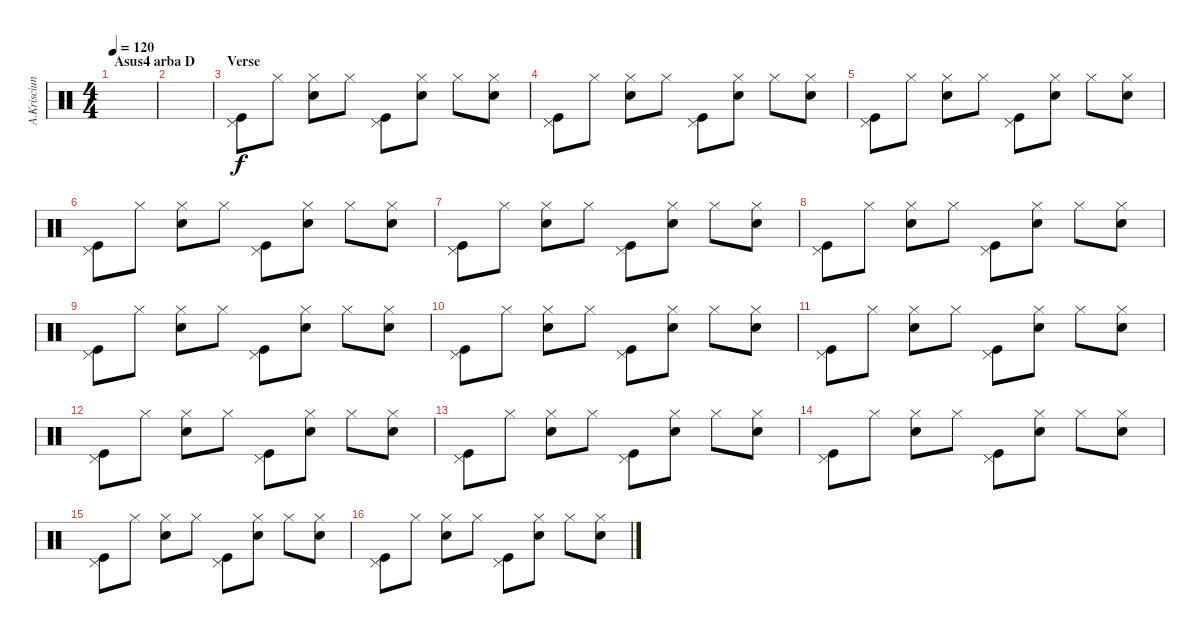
\track ("A.Krisciunas" "A.Krisciun") {instrument percussion}
\staff {score}
\articulation defaults
\ts (4 4)
\section ("" "Asus4 arba D")
\tempo 120
\clef neutral
\ks c
|
|
\section ("" "Verse")
("Pedal Hi-Hat (hit)" "Kick (hit)").8 "Hi-Hat (closed)".8 ("Hi-Hat (closed)" "Electric Snare (hit)").8 "Hi-Hat (closed)".8 ("Pedal Hi-Hat (hit)" "Kick (hit)").8 ("Hi-Hat (closed)" "Electric Snare (hit)").8 "Hi-Hat (closed)".8 ("Hi-Hat (closed)" "Electric Snare (hit)").8 |
("Pedal Hi-Hat (hit)" "Kick (hit)").8 "Hi-Hat (closed)".8 ("Hi-Hat (closed)" "Electric Snare (hit)").8 "Hi-Hat (closed)".8 ("Pedal Hi-Hat (hit)" "Kick (hit)").8 ("Hi-Hat (closed)" "Electric Snare (hit)").8 "Hi-Hat (closed)".8 ("Hi-Hat (closed)" "Electric Snare (hit)").8 |
("Pedal Hi-Hat (hit)" "Kick (hit)").8 "Hi-Hat (closed)".8 ("Hi-Hat (closed)" "Electric Snare (hit)").8 "Hi-Hat (closed)".8 ("Pedal Hi-Hat (hit)" "Kick (hit)").8 ("Hi-Hat (closed)" "Electric Snare (hit)").8 "Hi-Hat (closed)".8 ("Hi-Hat (closed)" "Electric Snare (hit)").8 |
("Pedal Hi-Hat (hit)" "Kick (hit)").8 "Hi-Hat (closed)".8 ("Hi-Hat (closed)" "Electric Snare (hit)").8 "Hi-Hat (closed)".8 ("Pedal Hi-Hat (hit)" "Kick (hit)").8 ("Hi-Hat (closed)" "Electric Snare (hit)").8 "Hi-Hat (closed)".8 ("Hi-Hat (closed)" "Electric Snare (hit)").8 |
("Pedal Hi-Hat (hit)" "Kick (hit)").8 "Hi-Hat (closed)".8 ("Hi-Hat (closed)" "Electric Snare (hit)").8 "Hi-Hat (closed)".8 ("Pedal Hi-Hat (hit)" "Kick (hit)").8 ("Hi-Hat (closed)" "Electric Snare (hit)").8 "Hi-Hat (closed)".8 ("Hi-Hat (closed)" "Electric Snare (hit)").8 |
("Pedal Hi-Hat (hit)" "Kick (hit)").8 "Hi-Hat (closed)".8 ("Hi-Hat (closed)" "Electric Snare (hit)").8 "Hi-Hat (closed)".8 ("Pedal Hi-Hat (hit)" "Kick (hit)").8 ("Hi-Hat (closed)" "Electric Snare (hit)").8 "Hi-Hat (closed)".8 ("Hi-Hat (closed)" "Electric Snare (hit)").8 |
("Pedal Hi-Hat (hit)" "Kick (hit)").8 "Hi-Hat (closed)".8 ("Hi-Hat (closed)" "Electric Snare (hit)").8 "Hi-Hat (closed)".8 ("Pedal Hi-Hat (hit)" "Kick (hit)").8 ("Hi-Hat (closed)" "Electric Snare (hit)").8 "Hi-Hat (closed)".8 ("Hi-Hat (closed)" "Electric Snare (hit)").8 |
("Pedal Hi-Hat (hit)" "Kick (hit)").8 "Hi-Hat (closed)".8 ("Hi-Hat (closed)" "Electric Snare (hit)").8 "Hi-Hat (closed)".8 ("Pedal Hi-Hat (hit)" "Kick (hit)").8 ("Hi-Hat (closed)" "Electric Snare (hit)").8 "Hi-Hat (closed)".8 ("Hi-Hat (closed)" "Electric Snare (hit)").8 |
("Pedal Hi-Hat (hit)" "Kick (hit)").8 "Hi-Hat (closed)".8 ("Hi-Hat (closed)" "Electric Snare (hit)").8 "Hi-Hat (closed)".8 ("Pedal Hi-Hat (hit)" "Kick (hit)").8 ("Hi-Hat (closed)" "Electric Snare (hit)").8 "Hi-Hat (closed)".8 ("Hi-Hat (closed)" "Electric Snare (hit)").8 |
("Pedal Hi-Hat (hit)" "Kick (hit)").8 "Hi-Hat (closed)".8 ("Hi-Hat (closed)" "Electric Snare (hit)").8 "Hi-Hat (closed)".8 ("Pedal Hi-Hat (hit)" "Kick (hit)").8 ("Hi-Hat (closed)" "Electric Snare (hit)").8 "Hi-Hat (closed)".8 ("Hi-Hat (closed)" "Electric Snare (hit)").8 |
("Pedal Hi-Hat (hit)" "Kick (hit)").8 "Hi-Hat (closed)".8 ("Hi-Hat (closed)" "Electric Snare (hit)").8 "Hi-Hat (closed)".8 ("Pedal Hi-Hat (hit)" "Kick (hit)").8 ("Hi-Hat (closed)" "Electric Snare (hit)").8 "Hi-Hat (closed)".8 ("Hi-Hat (closed)" "Electric Snare (hit)").8 |
("Pedal Hi-Hat (hit)" "Kick (hit)").8 "Hi-Hat (closed)".8 ("Hi-Hat (closed)" "Electric Snare (hit)").8 "Hi-Hat (closed)".8 ("Pedal Hi-Hat (hit)" "Kick (hit)").8 ("Hi-Hat (closed)" "Electric Snare (hit)").8 "Hi-Hat (closed)".8 ("Hi-Hat (closed)" "Electric Snare (hit)").8 |
("Pedal Hi-Hat (hit)" "Kick (hit)").8 "Hi-Hat (closed)".8 ("Hi-Hat (closed)" "Electric Snare (hit)").8 "Hi-Hat (closed)".8 ("Pedal Hi-Hat (hit)" "Kick (hit)").8 ("Hi-Hat (closed)" "Electric Snare (hit)").8 "Hi-Hat (closed)".8 ("Hi-Hat (closed)" "Electric Snare (hit)").8 |
("Pedal Hi-Hat (hit)" "Kick (hit)").8 "Hi-Hat (closed)".8 ("Hi-Hat (closed)" "Electric Snare (hit)").8 "Hi-Hat (closed)".8 ("Pedal Hi-Hat (hit)" "Kick (hit)").8 ("Hi-Hat (closed)" "Electric Snare (hit)").8 "Hi-Hat (closed)".8 ("Hi-Hat (closed)" "Electric Snare (hit)").8
